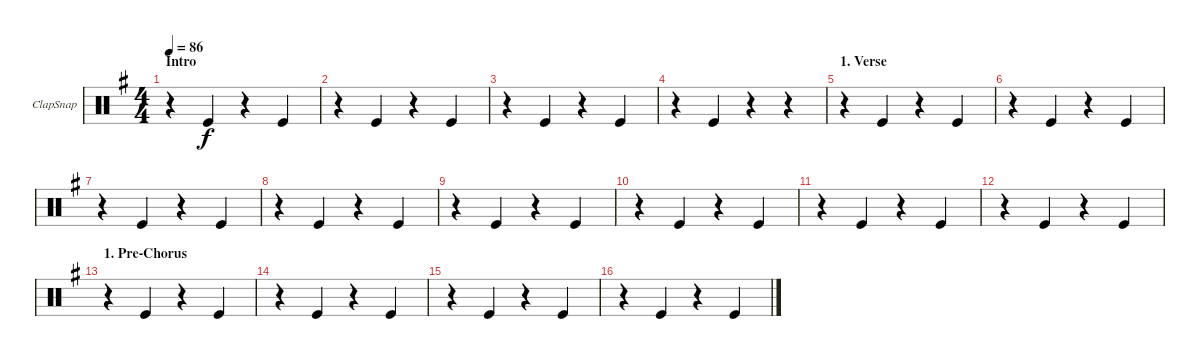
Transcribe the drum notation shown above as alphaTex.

\defaultSystemsLayout 4
\bracketExtendMode groupsimilarinstruments
\firstSystemTrackNameOrientation horizontal
\otherSystemsTrackNameOrientation horizontal
\track ("hand clap / snap" "ClapSnap") {instrument percussion}
\staff {score}
\articulation defaults
\ts (4 4)
\section ("" "Intro")
\tempo 86
\clef neutral
\ks g
r.4{dy f} "Kick (hit)".4 r.4 "Kick (hit)".4 |
r.4 "Kick (hit)".4 r.4 "Kick (hit)".4 |
r.4 "Kick (hit)".4 r.4 "Kick (hit)".4 |
r.4 "Kick (hit)".4 r.4 r.4 |
\section ("" "1. Verse")
r.4 "Kick (hit)".4 r.4 "Kick (hit)".4 |
r.4 "Kick (hit)".4 r.4 "Kick (hit)".4 |
r.4 "Kick (hit)".4 r.4 "Kick (hit)".4 |
r.4 "Kick (hit)".4 r.4 "Kick (hit)".4 |
r.4 "Kick (hit)".4 r.4 "Kick (hit)".4 |
r.4 "Kick (hit)".4 r.4 "Kick (hit)".4 |
r.4 "Kick (hit)".4 r.4 "Kick (hit)".4 |
r.4 "Kick (hit)".4 r.4 "Kick (hit)".4 |
\section ("" "1. Pre-Chorus")
r.4 "Kick (hit)".4 r.4 "Kick (hit)".4 |
r.4 "Kick (hit)".4 r.4 "Kick (hit)".4 |
r.4 "Kick (hit)".4 r.4 "Kick (hit)".4 |
r.4 "Kick (hit)".4 r.4 "Kick (hit)".4
